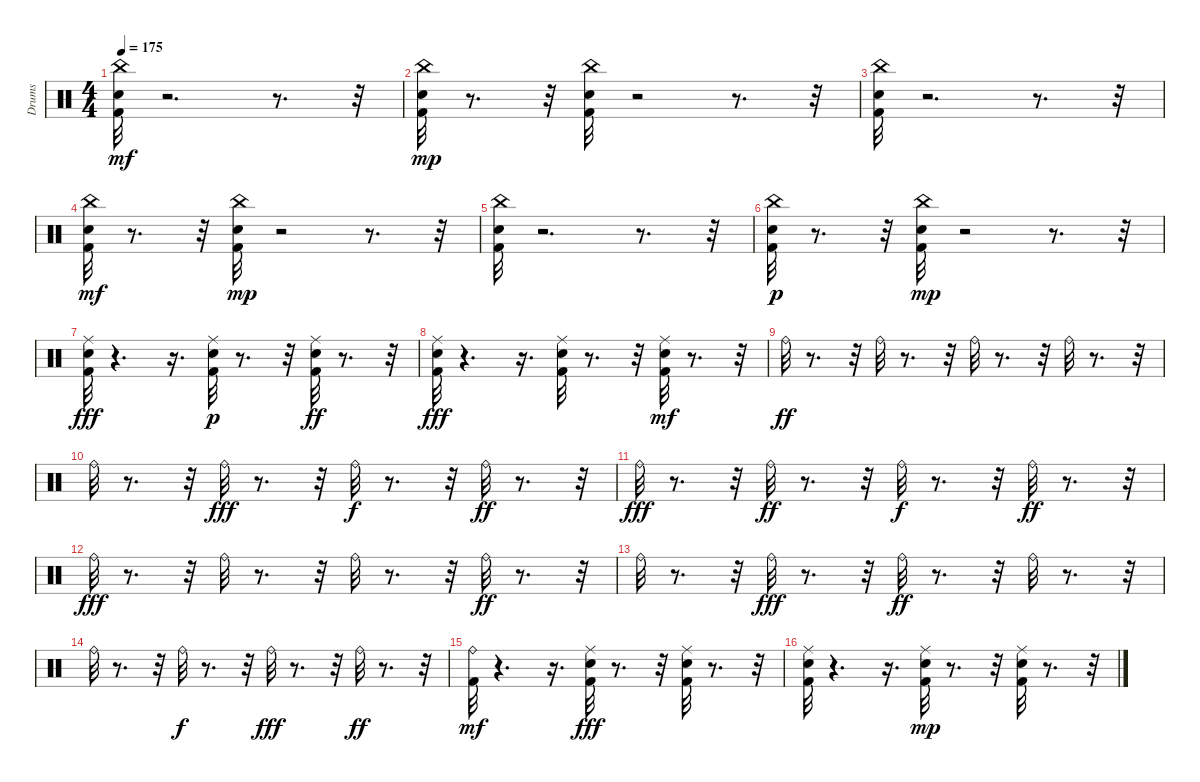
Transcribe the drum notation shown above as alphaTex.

\track ("Drums" "Drums") {instrument percussion}
\staff {score}
\articulation defaults
\ts (4 4)
\tempo 175
\clef neutral
\ks c
("China (hit)" "Kick (hit) 2" "Snare (hit) 2").32{dy mf} r.2{d} r.8{d} r.32 |
("Snare (hit) 2" "Kick (hit) 2" "China (hit)").32{dy mp} r.8{d} r.32 ("Kick (hit) 2" "China (hit)" "Snare (hit) 2").32 r.2 r.8{d} r.32 |
("China (hit)" "Snare (hit) 2" "Kick (hit) 2").32 r.2{d} r.8{d} r.32 |
("China (hit)" "Kick (hit) 2" "Snare (hit) 2").32{dy mf} r.8{d} r.32 ("Snare (hit) 2" "China (hit)" "Kick (hit) 2").32{dy mp} r.2 r.8{d} r.32 |
("China (hit)" "Kick (hit) 2" "Snare (hit) 2").32 r.2{d} r.8{d} r.32 |
("China (hit)" "Snare (hit) 2" "Kick (hit) 2").32{dy p} r.8{d} r.32 ("Snare (hit) 2" "China (hit)" "Kick (hit) 2").32{dy mp} r.2 r.8{d} r.32 |
("Snare (hit) 2" "Kick (hit) 2" "Ride (middle)").32{dy fff} r.4{d} r.16{d} ("Snare (hit) 2" "Ride (middle)" "Kick (hit) 2").32{dy p} r.8{d} r.32 ("Snare (hit) 2" "Ride (middle)" "Kick (hit) 2").32{dy ff} r.8{d} r.32 |
("Kick (hit) 2" "Snare (hit) 2" "Ride (middle)").32{dy fff} r.4{d} r.16{d} ("Snare (hit) 2" "Kick (hit) 2" "Ride (middle)").32 r.8{d} r.32 ("Snare (hit) 2" "Ride (middle)" "Kick (hit) 2").32{dy mf} r.8{d} r.32 |
"Ride (bell)".32{dy ff} r.8{d} r.32 "Ride (bell)".32 r.8{d} r.32 "Ride (bell)".32 r.8{d} r.32 "Ride (bell)".32 r.8{d} r.32 |
"Ride (bell)".32 r.8{d} r.32 "Ride (bell)".32{dy fff} r.8{d} r.32 "Ride (bell)".32{dy f} r.8{d} r.32 "Ride (bell)".32{dy ff} r.8{d} r.32 |
"Ride (bell)".32{dy fff} r.8{d} r.32 "Ride (bell)".32{dy ff} r.8{d} r.32 "Ride (bell)".32{dy f} r.8{d} r.32 "Ride (bell)".32{dy ff} r.8{d} r.32 |
"Ride (bell)".32{dy fff} r.8{d} r.32 "Ride (bell)".32 r.8{d} r.32 "Ride (bell)".32 r.8{d} r.32 "Ride (bell)".32{dy ff} r.8{d} r.32 |
"Ride (bell)".32 r.8{d} r.32 "Ride (bell)".32{dy fff} r.8{d} r.32 "Ride (bell)".32{dy ff} r.8{d} r.32 "Ride (bell)".32 r.8{d} r.32 |
"Ride (bell)".32 r.8{d} r.32 "Ride (bell)".32{dy f} r.8{d} r.32 "Ride (bell)".32{dy fff} r.8{d} r.32 "Ride (bell)".32{dy ff} r.8{d} r.32 |
("Ride (bell)" "Kick (hit) 2").32{dy mf} r.4{d} r.16{d} ("Snare (hit) 2" "Kick (hit) 2" "Ride (middle)").32{dy fff} r.8{d} r.32 ("Snare (hit) 2" "Ride (middle)" "Kick (hit) 2").32 r.8{d} r.32 |
("Kick (hit) 2" "Snare (hit) 2" "Ride (middle)").32 r.4{d} r.16{d} ("Ride (middle)" "Snare (hit) 2" "Kick (hit) 2").32{dy mp} r.8{d} r.32 ("Kick (hit) 2" "Ride (middle)" "Snare (hit) 2").32 r.8{d} r.32
